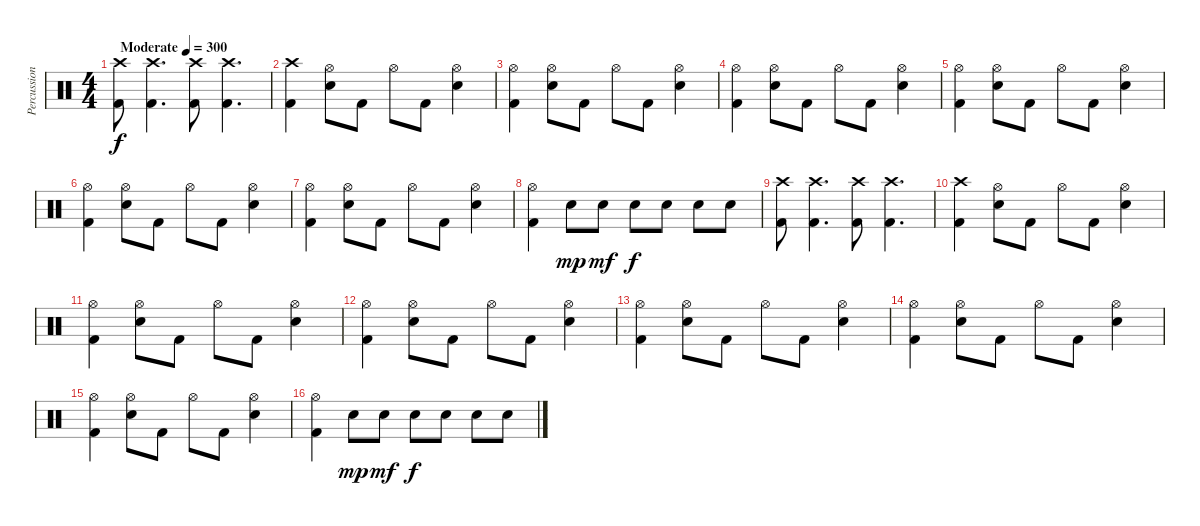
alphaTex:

\track ("Percussion" "Percussion") {instrument percussion}
\staff {score}
\articulation defaults
\ts (4 4)
\tempo (300 "Moderate")
\clef neutral
\ks c
("Crash high (hit)" "Kick (hit) 2").8{dy f} ("Crash high (hit)" "Kick (hit) 2").4{d} ("Crash high (hit)" "Kick (hit) 2").8 ("Crash high (hit)" "Kick (hit) 2").4{d} |
("Crash high (hit)" "Kick (hit) 2").4 ("Hi-Hat (open)" "Electric Snare (hit)").8 "Kick (hit) 2".8 "Hi-Hat (open)".8 "Kick (hit) 2".8 ("Hi-Hat (open)" "Electric Snare (hit)").4 |
("Hi-Hat (open)" "Kick (hit) 2").4 ("Hi-Hat (open)" "Electric Snare (hit)").8 "Kick (hit) 2".8 "Hi-Hat (open)".8 "Kick (hit) 2".8 ("Hi-Hat (open)" "Electric Snare (hit)").4 |
("Hi-Hat (open)" "Kick (hit) 2").4 ("Hi-Hat (open)" "Electric Snare (hit)").8 "Kick (hit) 2".8 "Hi-Hat (open)".8 "Kick (hit) 2".8 ("Hi-Hat (open)" "Electric Snare (hit)").4 |
("Hi-Hat (open)" "Kick (hit) 2").4 ("Hi-Hat (open)" "Electric Snare (hit)").8 "Kick (hit) 2".8 "Hi-Hat (open)".8 "Kick (hit) 2".8 ("Hi-Hat (open)" "Electric Snare (hit)").4 |
("Hi-Hat (open)" "Kick (hit) 2").4 ("Hi-Hat (open)" "Electric Snare (hit)").8 "Kick (hit) 2".8 "Hi-Hat (open)".8 "Kick (hit) 2".8 ("Hi-Hat (open)" "Electric Snare (hit)").4 |
("Hi-Hat (open)" "Kick (hit) 2").4 ("Hi-Hat (open)" "Electric Snare (hit)").8 "Kick (hit) 2".8 "Hi-Hat (open)".8 "Kick (hit) 2".8 ("Hi-Hat (open)" "Electric Snare (hit)").4 |
("Hi-Hat (open)" "Kick (hit) 2").4 "Electric Snare (hit)".8{dy mp} "Electric Snare (hit)".8{dy mf} "Electric Snare (hit)".8{dy f} "Electric Snare (hit)".8 "Electric Snare (hit)".8 "Electric Snare (hit)".8 |
("Crash high (hit)" "Kick (hit) 2").8 ("Crash high (hit)" "Kick (hit) 2").4{d} ("Crash high (hit)" "Kick (hit) 2").8 ("Crash high (hit)" "Kick (hit) 2").4{d} |
("Crash high (hit)" "Kick (hit) 2").4 ("Hi-Hat (open)" "Electric Snare (hit)").8 "Kick (hit) 2".8 "Hi-Hat (open)".8 "Kick (hit) 2".8 ("Hi-Hat (open)" "Electric Snare (hit)").4 |
("Hi-Hat (open)" "Kick (hit) 2").4 ("Hi-Hat (open)" "Electric Snare (hit)").8 "Kick (hit) 2".8 "Hi-Hat (open)".8 "Kick (hit) 2".8 ("Hi-Hat (open)" "Electric Snare (hit)").4 |
("Hi-Hat (open)" "Kick (hit) 2").4 ("Hi-Hat (open)" "Electric Snare (hit)").8 "Kick (hit) 2".8 "Hi-Hat (open)".8 "Kick (hit) 2".8 ("Hi-Hat (open)" "Electric Snare (hit)").4 |
("Hi-Hat (open)" "Kick (hit) 2").4 ("Hi-Hat (open)" "Electric Snare (hit)").8 "Kick (hit) 2".8 "Hi-Hat (open)".8 "Kick (hit) 2".8 ("Hi-Hat (open)" "Electric Snare (hit)").4 |
("Hi-Hat (open)" "Kick (hit) 2").4 ("Hi-Hat (open)" "Electric Snare (hit)").8 "Kick (hit) 2".8 "Hi-Hat (open)".8 "Kick (hit) 2".8 ("Hi-Hat (open)" "Electric Snare (hit)").4 |
("Hi-Hat (open)" "Kick (hit) 2").4 ("Hi-Hat (open)" "Electric Snare (hit)").8 "Kick (hit) 2".8 "Hi-Hat (open)".8 "Kick (hit) 2".8 ("Hi-Hat (open)" "Electric Snare (hit)").4 |
("Hi-Hat (open)" "Kick (hit) 2").4 "Electric Snare (hit)".8{dy mp} "Electric Snare (hit)".8{dy mf} "Electric Snare (hit)".8{dy f} "Electric Snare (hit)".8 "Electric Snare (hit)".8 "Electric Snare (hit)".8
